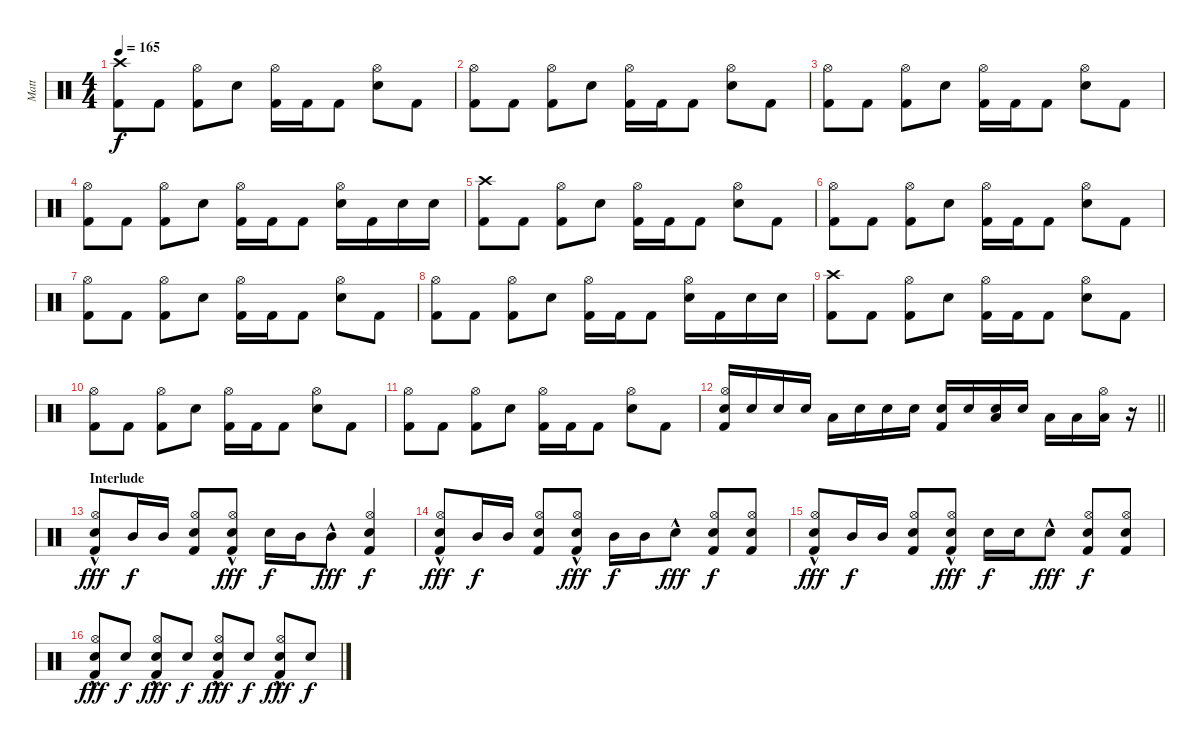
\track ("Matt" "Matt") {instrument percussion}
\staff {score}
\articulation defaults
\ts (4 4)
\tempo 165
\clef neutral
\ks c
("Crash high (hit)" "Kick (hit) 2").8{dy f} "Kick (hit) 2".8 ("Hi-Hat (open)" "Kick (hit) 2").8 "Electric Snare (hit)".8 ("Hi-Hat (open)" "Kick (hit) 2").16 "Kick (hit) 2".16 "Kick (hit) 2".8 ("Hi-Hat (open)" "Electric Snare (hit)").8 "Kick (hit) 2".8 |
("Hi-Hat (open)" "Kick (hit) 2").8 "Kick (hit) 2".8 ("Hi-Hat (open)" "Kick (hit) 2").8 "Electric Snare (hit)".8 ("Hi-Hat (open)" "Kick (hit) 2").16 "Kick (hit) 2".16 "Kick (hit) 2".8 ("Hi-Hat (open)" "Electric Snare (hit)").8 "Kick (hit) 2".8 |
("Hi-Hat (open)" "Kick (hit) 2").8 "Kick (hit) 2".8 ("Hi-Hat (open)" "Kick (hit) 2").8 "Electric Snare (hit)".8 ("Hi-Hat (open)" "Kick (hit) 2").16 "Kick (hit) 2".16 "Kick (hit) 2".8 ("Hi-Hat (open)" "Electric Snare (hit)").8 "Kick (hit) 2".8 |
("Hi-Hat (open)" "Kick (hit) 2").8 "Kick (hit) 2".8 ("Hi-Hat (open)" "Kick (hit) 2").8 "Electric Snare (hit)".8 ("Hi-Hat (open)" "Kick (hit) 2").16 "Kick (hit) 2".16 "Kick (hit) 2".8 ("Hi-Hat (open)" "Electric Snare (hit)").16 "Kick (hit) 2".16 "Electric Snare (hit)".16 "Electric Snare (hit)".16 |
("Crash high (hit)" "Kick (hit) 2").8 "Kick (hit) 2".8 ("Hi-Hat (open)" "Kick (hit) 2").8 "Electric Snare (hit)".8 ("Hi-Hat (open)" "Kick (hit) 2").16 "Kick (hit) 2".16 "Kick (hit) 2".8 ("Hi-Hat (open)" "Electric Snare (hit)").8 "Kick (hit) 2".8 |
("Hi-Hat (open)" "Kick (hit) 2").8 "Kick (hit) 2".8 ("Hi-Hat (open)" "Kick (hit) 2").8 "Electric Snare (hit)".8 ("Hi-Hat (open)" "Kick (hit) 2").16 "Kick (hit) 2".16 "Kick (hit) 2".8 ("Hi-Hat (open)" "Electric Snare (hit)").8 "Kick (hit) 2".8 |
("Hi-Hat (open)" "Kick (hit) 2").8 "Kick (hit) 2".8 ("Hi-Hat (open)" "Kick (hit) 2").8 "Electric Snare (hit)".8 ("Hi-Hat (open)" "Kick (hit) 2").16 "Kick (hit) 2".16 "Kick (hit) 2".8 ("Hi-Hat (open)" "Electric Snare (hit)").8 "Kick (hit) 2".8 |
("Hi-Hat (open)" "Kick (hit) 2").8 "Kick (hit) 2".8 ("Hi-Hat (open)" "Kick (hit) 2").8 "Electric Snare (hit)".8 ("Hi-Hat (open)" "Kick (hit) 2").16 "Kick (hit) 2".16 "Kick (hit) 2".8 ("Hi-Hat (open)" "Electric Snare (hit)").16 "Kick (hit) 2".16 "Electric Snare (hit)".16 "Electric Snare (hit)".16 |
("Crash high (hit)" "Kick (hit) 2").8 "Kick (hit) 2".8 ("Hi-Hat (open)" "Kick (hit) 2").8 "Electric Snare (hit)".8 ("Hi-Hat (open)" "Kick (hit) 2").16 "Kick (hit) 2".16 "Kick (hit) 2".8 ("Hi-Hat (open)" "Electric Snare (hit)").8 "Kick (hit) 2".8 |
("Hi-Hat (open)" "Kick (hit) 2").8 "Kick (hit) 2".8 ("Hi-Hat (open)" "Kick (hit) 2").8 "Electric Snare (hit)".8 ("Hi-Hat (open)" "Kick (hit) 2").16 "Kick (hit) 2".16 "Kick (hit) 2".8 ("Hi-Hat (open)" "Electric Snare (hit)").8 "Kick (hit) 2".8 |
("Hi-Hat (open)" "Kick (hit) 2").8 "Kick (hit) 2".8 ("Hi-Hat (open)" "Kick (hit) 2").8 "Electric Snare (hit)".8 ("Hi-Hat (open)" "Kick (hit) 2").16 "Kick (hit) 2".16 "Kick (hit) 2".8 ("Hi-Hat (open)" "Electric Snare (hit)").8 "Kick (hit) 2".8 |
\barLineRight lightlight
("Hi-Hat (open)" "Electric Snare (hit)" "Kick (hit) 2").16 "Electric Snare (hit)".16 "Electric Snare (hit)".16 "Electric Snare (hit)".16 "Low Tom (hit)".16 "Electric Snare (hit)".16 "Electric Snare (hit)".16 "Electric Snare (hit)".16 ("Electric Snare (hit)" "Kick (hit) 2").16 "Electric Snare (hit)".16 ("Low Tom (hit)" "Electric Snare (hit)").16 "Electric Snare (hit)".16 "Low Tom (hit)".16 "Low Tom (hit)".16 ("Hi-Hat (open)" "Low Tom (hit)").16 r.16 |
\section ("" "Interlude")
("Hi-Hat (open)" "Electric Snare (hit)"{hac} "Kick (hit) 2").8{dy fff} "Mid Tom (hit)".16{dy f} "Mid Tom (hit)".16 ("Hi-Hat (open)" "Electric Snare (hit)" "Kick (hit) 2").8 ("Hi-Hat (open)" "Electric Snare (hit)"{hac} "Kick (hit) 2").8{dy fff} "Electric Snare (hit)".16{dy f} "Mid Tom (hit)".16 "Mid Tom (hit)"{hac}.8{dy fff} ("Hi-Hat (open)" "Electric Snare (hit)" "Kick (hit) 2").4{dy f} |
("Hi-Hat (open)" "Electric Snare (hit)"{hac} "Kick (hit) 2").8{dy fff} "Mid Tom (hit)".16{dy f} "Mid Tom (hit)".16 ("Hi-Hat (open)" "Electric Snare (hit)" "Kick (hit) 2").8 ("Hi-Hat (open)" "Electric Snare (hit)"{hac} "Kick (hit) 2").8{dy fff} "Mid Tom (hit)".16{dy f} "Mid Tom (hit)".16 "Electric Snare (hit)"{hac}.8{dy fff} ("Hi-Hat (open)" "Electric Snare (hit)" "Kick (hit) 2").8{dy f} ("Hi-Hat (open)" "Electric Snare (hit)" "Kick (hit) 2").8 |
("Hi-Hat (open)" "Electric Snare (hit)"{hac} "Kick (hit) 2").8{dy fff} "Mid Tom (hit)".16{dy f} "Mid Tom (hit)".16 ("Hi-Hat (open)" "Electric Snare (hit)" "Kick (hit) 2").8 ("Hi-Hat (open)" "Electric Snare (hit)"{hac} "Kick (hit) 2").8{dy fff} "Electric Snare (hit)".16{dy f} "Electric Snare (hit)".16 "Electric Snare (hit)"{hac}.8{dy fff} ("Hi-Hat (open)" "Electric Snare (hit)" "Kick (hit) 2").8{dy f} ("Hi-Hat (open)" "Electric Snare (hit)" "Kick (hit) 2").8 |
("Hi-Hat (open)" "Electric Snare (hit)"{hac} "Kick (hit) 2").8{dy fff} "Electric Snare (hit)".8{dy f} ("Hi-Hat (open)" "Electric Snare (hit)"{hac} "Kick (hit) 2").8{dy fff} "Electric Snare (hit)".8{dy f} ("Hi-Hat (open)" "Electric Snare (hit)"{hac} "Kick (hit) 2").8{dy fff} "Electric Snare (hit)".8{dy f} ("Hi-Hat (open)" "Electric Snare (hit)"{hac} "Kick (hit) 2").8{dy fff} "Electric Snare (hit)".8{dy f}
